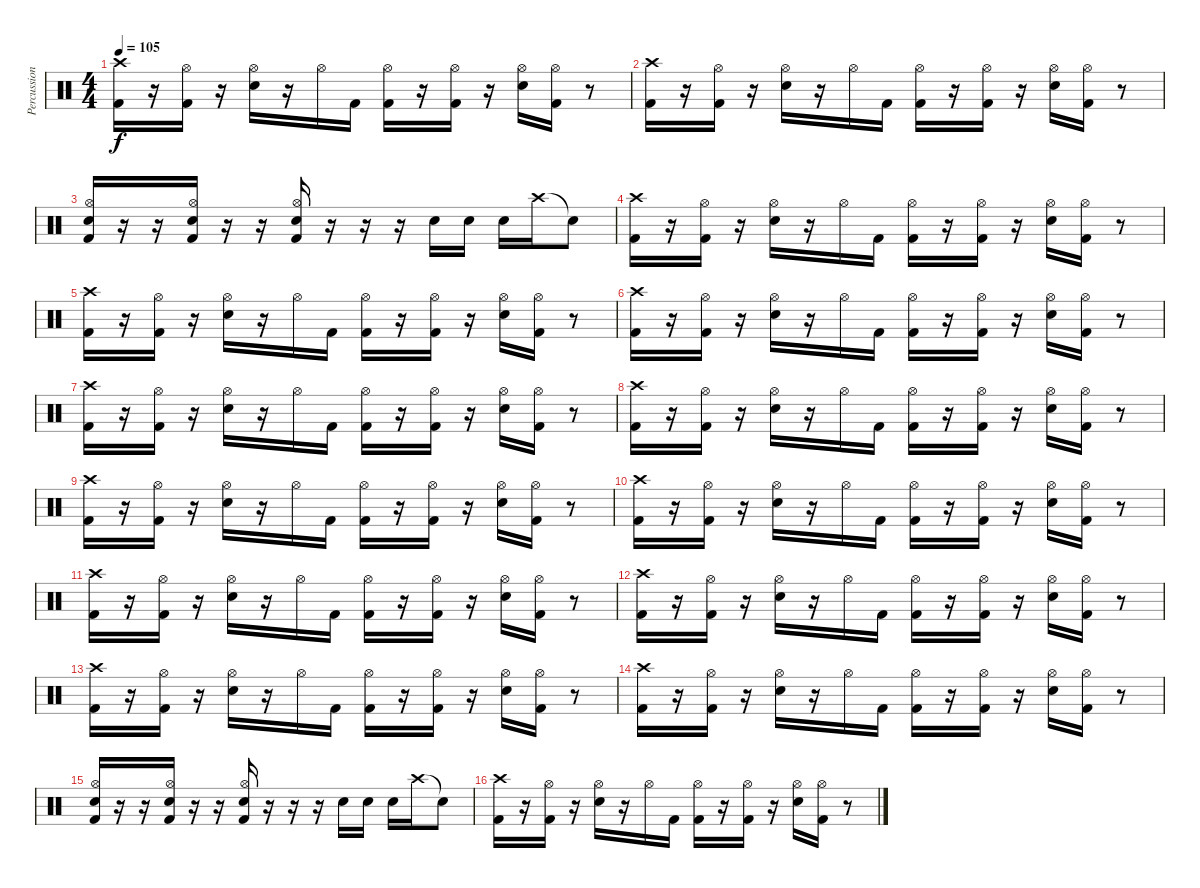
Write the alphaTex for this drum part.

\track ("Percussions" "Percussion") {instrument percussion}
\staff {score}
\articulation defaults
\ts (4 4)
\tempo 105
\clef neutral
\ks c
("Crash high (hit)" "Kick (hit) 2").16{dy f} r.16 ("Hi-Hat (open)" "Kick (hit) 2").16 r.16 ("Hi-Hat (open)" "Snare (hit) 2").16 r.16 "Hi-Hat (open)".16 "Kick (hit) 2".16 ("Kick (hit) 2" "Hi-Hat (open)").16 r.16 ("Kick (hit) 2" "Hi-Hat (open)").16 r.16 ("Hi-Hat (open)" "Snare (hit) 2").16 ("Kick (hit) 2" "Hi-Hat (open)").16 r.8 |
("Crash high (hit)" "Kick (hit) 2").16 r.16 ("Hi-Hat (open)" "Kick (hit) 2").16 r.16 ("Hi-Hat (open)" "Snare (hit) 2").16 r.16 "Hi-Hat (open)".16 "Kick (hit) 2".16 ("Kick (hit) 2" "Hi-Hat (open)").16 r.16 ("Kick (hit) 2" "Hi-Hat (open)").16 r.16 ("Hi-Hat (open)" "Snare (hit) 2").16 ("Kick (hit) 2" "Hi-Hat (open)").16 r.8 |
("Kick (hit) 2" "Snare (hit) 2" "Hi-Hat (open)").16 r.16 r.16 ("Kick (hit) 2" "Snare (hit) 2" "Hi-Hat (open)").16 r.16 r.16 ("Kick (hit) 2" "Snare (hit) 2" "Hi-Hat (open)").16 r.16 r.16 r.16 "Snare (hit) 2".16 "Snare (hit) 2".16 "Snare (hit) 2".16 "Crash high (hit)".16 "Snare (hit)"{t}.8 |
("Crash high (hit)" "Kick (hit) 2").16 r.16 ("Hi-Hat (open)" "Kick (hit) 2").16 r.16 ("Hi-Hat (open)" "Snare (hit) 2").16 r.16 "Hi-Hat (open)".16 "Kick (hit) 2".16 ("Kick (hit) 2" "Hi-Hat (open)").16 r.16 ("Kick (hit) 2" "Hi-Hat (open)").16 r.16 ("Hi-Hat (open)" "Snare (hit) 2").16 ("Kick (hit) 2" "Hi-Hat (open)").16 r.8 |
("Crash high (hit)" "Kick (hit) 2").16 r.16 ("Hi-Hat (open)" "Kick (hit) 2").16 r.16 ("Hi-Hat (open)" "Snare (hit) 2").16 r.16 "Hi-Hat (open)".16 "Kick (hit) 2".16 ("Kick (hit) 2" "Hi-Hat (open)").16 r.16 ("Kick (hit) 2" "Hi-Hat (open)").16 r.16 ("Hi-Hat (open)" "Snare (hit) 2").16 ("Kick (hit) 2" "Hi-Hat (open)").16 r.8 |
("Crash high (hit)" "Kick (hit) 2").16 r.16 ("Hi-Hat (open)" "Kick (hit) 2").16 r.16 ("Hi-Hat (open)" "Snare (hit) 2").16 r.16 "Hi-Hat (open)".16 "Kick (hit) 2".16 ("Kick (hit) 2" "Hi-Hat (open)").16 r.16 ("Kick (hit) 2" "Hi-Hat (open)").16 r.16 ("Hi-Hat (open)" "Snare (hit) 2").16 ("Kick (hit) 2" "Hi-Hat (open)").16 r.8 |
("Crash high (hit)" "Kick (hit) 2").16 r.16 ("Hi-Hat (open)" "Kick (hit) 2").16 r.16 ("Hi-Hat (open)" "Snare (hit) 2").16 r.16 "Hi-Hat (open)".16 "Kick (hit) 2".16 ("Kick (hit) 2" "Hi-Hat (open)").16 r.16 ("Kick (hit) 2" "Hi-Hat (open)").16 r.16 ("Hi-Hat (open)" "Snare (hit) 2").16 ("Kick (hit) 2" "Hi-Hat (open)").16 r.8 |
("Crash high (hit)" "Kick (hit) 2").16 r.16 ("Hi-Hat (open)" "Kick (hit) 2").16 r.16 ("Hi-Hat (open)" "Snare (hit) 2").16 r.16 "Hi-Hat (open)".16 "Kick (hit) 2".16 ("Kick (hit) 2" "Hi-Hat (open)").16 r.16 ("Kick (hit) 2" "Hi-Hat (open)").16 r.16 ("Hi-Hat (open)" "Snare (hit) 2").16 ("Kick (hit) 2" "Hi-Hat (open)").16 r.8 |
("Crash high (hit)" "Kick (hit) 2").16 r.16 ("Hi-Hat (open)" "Kick (hit) 2").16 r.16 ("Hi-Hat (open)" "Snare (hit) 2").16 r.16 "Hi-Hat (open)".16 "Kick (hit) 2".16 ("Kick (hit) 2" "Hi-Hat (open)").16 r.16 ("Kick (hit) 2" "Hi-Hat (open)").16 r.16 ("Hi-Hat (open)" "Snare (hit) 2").16 ("Kick (hit) 2" "Hi-Hat (open)").16 r.8 |
("Crash high (hit)" "Kick (hit) 2").16 r.16 ("Hi-Hat (open)" "Kick (hit) 2").16 r.16 ("Hi-Hat (open)" "Snare (hit) 2").16 r.16 "Hi-Hat (open)".16 "Kick (hit) 2".16 ("Kick (hit) 2" "Hi-Hat (open)").16 r.16 ("Kick (hit) 2" "Hi-Hat (open)").16 r.16 ("Hi-Hat (open)" "Snare (hit) 2").16 ("Kick (hit) 2" "Hi-Hat (open)").16 r.8 |
("Crash high (hit)" "Kick (hit) 2").16 r.16 ("Hi-Hat (open)" "Kick (hit) 2").16 r.16 ("Hi-Hat (open)" "Snare (hit) 2").16 r.16 "Hi-Hat (open)".16 "Kick (hit) 2".16 ("Kick (hit) 2" "Hi-Hat (open)").16 r.16 ("Kick (hit) 2" "Hi-Hat (open)").16 r.16 ("Hi-Hat (open)" "Snare (hit) 2").16 ("Kick (hit) 2" "Hi-Hat (open)").16 r.8 |
("Crash high (hit)" "Kick (hit) 2").16 r.16 ("Hi-Hat (open)" "Kick (hit) 2").16 r.16 ("Hi-Hat (open)" "Snare (hit) 2").16 r.16 "Hi-Hat (open)".16 "Kick (hit) 2".16 ("Kick (hit) 2" "Hi-Hat (open)").16 r.16 ("Kick (hit) 2" "Hi-Hat (open)").16 r.16 ("Hi-Hat (open)" "Snare (hit) 2").16 ("Kick (hit) 2" "Hi-Hat (open)").16 r.8 |
("Crash high (hit)" "Kick (hit) 2").16 r.16 ("Hi-Hat (open)" "Kick (hit) 2").16 r.16 ("Hi-Hat (open)" "Snare (hit) 2").16 r.16 "Hi-Hat (open)".16 "Kick (hit) 2".16 ("Kick (hit) 2" "Hi-Hat (open)").16 r.16 ("Kick (hit) 2" "Hi-Hat (open)").16 r.16 ("Hi-Hat (open)" "Snare (hit) 2").16 ("Kick (hit) 2" "Hi-Hat (open)").16 r.8 |
("Crash high (hit)" "Kick (hit) 2").16 r.16 ("Hi-Hat (open)" "Kick (hit) 2").16 r.16 ("Hi-Hat (open)" "Snare (hit) 2").16 r.16 "Hi-Hat (open)".16 "Kick (hit) 2".16 ("Kick (hit) 2" "Hi-Hat (open)").16 r.16 ("Kick (hit) 2" "Hi-Hat (open)").16 r.16 ("Hi-Hat (open)" "Snare (hit) 2").16 ("Kick (hit) 2" "Hi-Hat (open)").16 r.8 |
("Kick (hit) 2" "Snare (hit) 2" "Hi-Hat (open)").16 r.16 r.16 ("Kick (hit) 2" "Snare (hit) 2" "Hi-Hat (open)").16 r.16 r.16 ("Kick (hit) 2" "Snare (hit) 2" "Hi-Hat (open)").16 r.16 r.16 r.16 "Snare (hit) 2".16 "Snare (hit) 2".16 "Snare (hit) 2".16 "Crash high (hit)".16 "Snare (hit)"{t}.8 |
("Crash high (hit)" "Kick (hit) 2").16 r.16 ("Hi-Hat (open)" "Kick (hit) 2").16 r.16 ("Hi-Hat (open)" "Snare (hit) 2").16 r.16 "Hi-Hat (open)".16 "Kick (hit) 2".16 ("Kick (hit) 2" "Hi-Hat (open)").16 r.16 ("Kick (hit) 2" "Hi-Hat (open)").16 r.16 ("Hi-Hat (open)" "Snare (hit) 2").16 ("Kick (hit) 2" "Hi-Hat (open)").16 r.8
